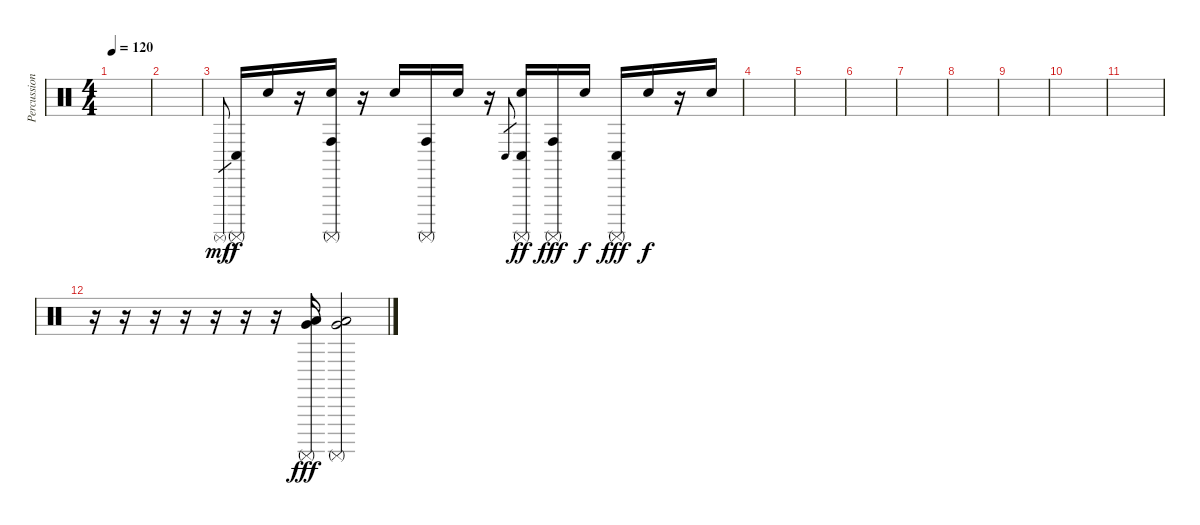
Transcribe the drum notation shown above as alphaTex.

\track ("Percussioni" "Percussion") {instrument percussion}
\staff {score}
\articulation defaults
\ts (4 4)
\tempo 120
\clef neutral
\ks c
|
|
"Surdo (mute)".8{gr dy mf} ("Surdo (mute)" "Conga low (hit)").16{dy f} "Snare (hit)".16 r.16 ("Snare (hit)" "Surdo (mute)" "Conga high (hit)").16 r.16 "Snare (hit)".16 ("Surdo (mute)" "Conga high (hit)").16 "Snare (hit)".16 r.16 "Conga low (hit)".8{gr} ("Snare (hit)" "Surdo (mute)" "Conga low (hit)").16{dy ff} ("Surdo (mute)" "Conga high (hit)").16{dy fff} "Snare (hit)".16{dy f} ("Surdo (mute)" "Conga low (hit)").16{dy fff} "Snare (hit)".16{dy f} r.16 "Snare (hit)".16 |
|
|
|
|
|
|
|
|
r.16 r.16 r.16 r.16 r.16 r.16 r.16 ("Surdo (mute)" "Very Low Tom (hit)" "Low Floor Tom (hit)").16{dy fff} ("Surdo (mute)" "Very Low Tom (hit)" "Low Floor Tom (hit)").2
